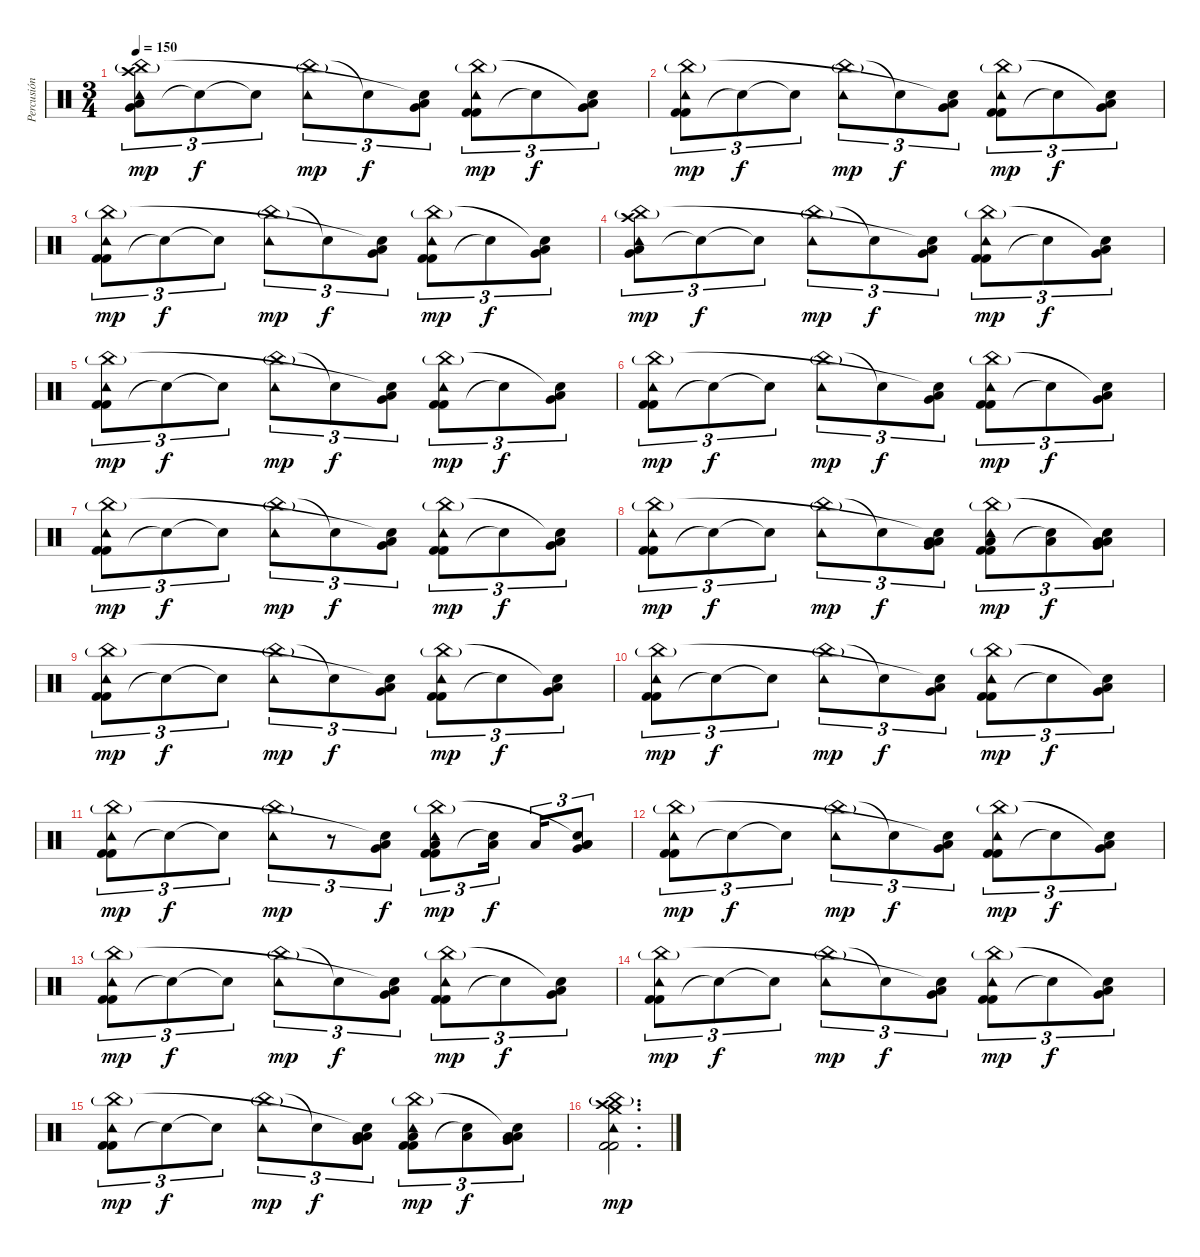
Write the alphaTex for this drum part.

\track ("Percusión" "Percusión") {instrument percussion}
\staff {score}
\articulation defaults
\ts (3 4)
\tempo 150
\clef neutral
\ks c
("Low Floor Tom (hit)" "Very Low Tom (hit)" "China (hit)"{g} "Crash high (hit)" "Tambourine (hit)").8{tu (3 2) dy mp} "Snare (hit)"{t}.8{tu (3 2) dy f} "Snare (hit)"{t}.8{tu (3 2)} ("China (hit)"{g} "Tambourine (hit)").8{tu (3 2) dy mp} "Snare (hit)"{t}.8{tu (3 2) dy f} ("Low Floor Tom (hit)" "Very Low Tom (hit)" "Snare (hit)"{t}).8{tu (3 2)} ("Kick (hit) 2" "Kick (hit) 2" "China (hit)"{g} "Tambourine (hit)").8{tu (3 2) dy mp} "Snare (hit)"{t}.8{tu (3 2) dy f} ("Low Floor Tom (hit)" "Very Low Tom (hit)" "Snare (hit)"{t}).8{tu (3 2)} |
("Kick (hit) 2" "Kick (hit) 2" "China (hit)"{g} "Tambourine (hit)").8{tu (3 2) dy mp} "Snare (hit)"{t}.8{tu (3 2) dy f} "Snare (hit)"{t}.8{tu (3 2)} ("China (hit)"{g} "Tambourine (hit)").8{tu (3 2) dy mp} "Snare (hit)"{t}.8{tu (3 2) dy f} ("Low Floor Tom (hit)" "Very Low Tom (hit)" "Snare (hit)"{t}).8{tu (3 2)} ("Kick (hit) 2" "Kick (hit) 2" "China (hit)"{g} "Tambourine (hit)").8{tu (3 2) dy mp} "Snare (hit)"{t}.8{tu (3 2) dy f} ("Low Floor Tom (hit)" "Very Low Tom (hit)" "Snare (hit)"{t}).8{tu (3 2)} |
("Kick (hit) 2" "Kick (hit) 2" "China (hit)"{g} "Tambourine (hit)").8{tu (3 2) dy mp} "Snare (hit)"{t}.8{tu (3 2) dy f} "Snare (hit)"{t}.8{tu (3 2)} ("China (hit)"{g} "Tambourine (hit)").8{tu (3 2) dy mp} "Snare (hit)"{t}.8{tu (3 2) dy f} ("Low Floor Tom (hit)" "Very Low Tom (hit)" "Snare (hit)"{t}).8{tu (3 2)} ("Kick (hit) 2" "Kick (hit) 2" "China (hit)"{g} "Tambourine (hit)").8{tu (3 2) dy mp} "Snare (hit)"{t}.8{tu (3 2) dy f} ("Low Floor Tom (hit)" "Very Low Tom (hit)" "Snare (hit)"{t}).8{tu (3 2)} |
("Low Floor Tom (hit)" "Very Low Tom (hit)" "China (hit)"{g} "Crash high (hit)" "Tambourine (hit)").8{tu (3 2) dy mp} "Snare (hit)"{t}.8{tu (3 2) dy f} "Snare (hit)"{t}.8{tu (3 2)} ("China (hit)"{g} "Tambourine (hit)").8{tu (3 2) dy mp} "Snare (hit)"{t}.8{tu (3 2) dy f} ("Low Floor Tom (hit)" "Very Low Tom (hit)" "Snare (hit)"{t}).8{tu (3 2)} ("Kick (hit) 2" "Kick (hit) 2" "China (hit)"{g} "Tambourine (hit)").8{tu (3 2) dy mp} "Snare (hit)"{t}.8{tu (3 2) dy f} ("Low Floor Tom (hit)" "Very Low Tom (hit)" "Snare (hit)"{t}).8{tu (3 2)} |
("Kick (hit) 2" "Kick (hit) 2" "China (hit)"{g} "Tambourine (hit)").8{tu (3 2) dy mp} "Snare (hit)"{t}.8{tu (3 2) dy f} "Snare (hit)"{t}.8{tu (3 2)} ("China (hit)"{g} "Tambourine (hit)").8{tu (3 2) dy mp} "Snare (hit)"{t}.8{tu (3 2) dy f} ("Low Floor Tom (hit)" "Very Low Tom (hit)" "Snare (hit)"{t}).8{tu (3 2)} ("Kick (hit) 2" "Kick (hit) 2" "China (hit)"{g} "Tambourine (hit)").8{tu (3 2) dy mp} "Snare (hit)"{t}.8{tu (3 2) dy f} ("Low Floor Tom (hit)" "Very Low Tom (hit)" "Snare (hit)"{t}).8{tu (3 2)} |
("Kick (hit) 2" "Kick (hit) 2" "China (hit)"{g} "Tambourine (hit)").8{tu (3 2) dy mp} "Snare (hit)"{t}.8{tu (3 2) dy f} "Snare (hit)"{t}.8{tu (3 2)} ("China (hit)"{g} "Tambourine (hit)").8{tu (3 2) dy mp} "Snare (hit)"{t}.8{tu (3 2) dy f} ("Low Floor Tom (hit)" "Very Low Tom (hit)" "Snare (hit)"{t}).8{tu (3 2)} ("Kick (hit) 2" "Kick (hit) 2" "China (hit)"{g} "Tambourine (hit)").8{tu (3 2) dy mp} "Snare (hit)"{t}.8{tu (3 2) dy f} ("Low Floor Tom (hit)" "Very Low Tom (hit)" "Snare (hit)"{t}).8{tu (3 2)} |
("Kick (hit) 2" "Kick (hit) 2" "China (hit)"{g} "Tambourine (hit)").8{tu (3 2) dy mp} "Snare (hit)"{t}.8{tu (3 2) dy f} "Snare (hit)"{t}.8{tu (3 2)} ("China (hit)"{g} "Tambourine (hit)").8{tu (3 2) dy mp} "Snare (hit)"{t}.8{tu (3 2) dy f} ("Low Floor Tom (hit)" "Very Low Tom (hit)" "Snare (hit)"{t}).8{tu (3 2)} ("Kick (hit) 2" "Kick (hit) 2" "China (hit)"{g} "Tambourine (hit)").8{tu (3 2) dy mp} "Snare (hit)"{t}.8{tu (3 2) dy f} ("Low Floor Tom (hit)" "Very Low Tom (hit)" "Snare (hit)"{t}).8{tu (3 2)} |
("Kick (hit) 2" "Kick (hit) 2" "China (hit)"{g} "Tambourine (hit)").8{tu (3 2) dy mp} "Snare (hit)"{t}.8{tu (3 2) dy f} "Snare (hit)"{t}.8{tu (3 2)} ("China (hit)"{g} "Tambourine (hit)").8{tu (3 2) dy mp} "Snare (hit)"{t}.8{tu (3 2) dy f} ("Low Floor Tom (hit)" "Very Low Tom (hit)" "Snare (hit)"{t} "Low Tom (hit)").8{tu (3 2)} ("Kick (hit) 2" "Kick (hit) 2" "China (hit)"{g} "Low Tom (hit)" "Tambourine (hit)").8{tu (3 2) dy mp} ("Snare (hit)"{t} "Low Tom (hit)").8{tu (3 2) dy f} ("Low Floor Tom (hit)" "Very Low Tom (hit)" "Snare (hit)"{t} "Low Tom (hit)").8{tu (3 2)} |
("Kick (hit) 2" "Kick (hit) 2" "China (hit)"{g} "Tambourine (hit)").8{tu (3 2) dy mp} "Snare (hit)"{t}.8{tu (3 2) dy f} "Snare (hit)"{t}.8{tu (3 2)} ("China (hit)"{g} "Tambourine (hit)").8{tu (3 2) dy mp} "Snare (hit)"{t}.8{tu (3 2) dy f} ("Low Floor Tom (hit)" "Very Low Tom (hit)" "Snare (hit)"{t}).8{tu (3 2)} ("Kick (hit) 2" "Kick (hit) 2" "China (hit)"{g} "Tambourine (hit)").8{tu (3 2) dy mp} "Snare (hit)"{t}.8{tu (3 2) dy f} ("Low Floor Tom (hit)" "Very Low Tom (hit)" "Snare (hit)"{t}).8{tu (3 2)} |
("Kick (hit) 2" "Kick (hit) 2" "China (hit)"{g} "Tambourine (hit)").8{tu (3 2) dy mp} "Snare (hit)"{t}.8{tu (3 2) dy f} "Snare (hit)"{t}.8{tu (3 2)} ("China (hit)"{g} "Tambourine (hit)").8{tu (3 2) dy mp} "Snare (hit)"{t}.8{tu (3 2) dy f} ("Low Floor Tom (hit)" "Very Low Tom (hit)" "Snare (hit)"{t}).8{tu (3 2)} ("Kick (hit) 2" "Kick (hit) 2" "China (hit)"{g} "Tambourine (hit)").8{tu (3 2) dy mp} "Snare (hit)"{t}.8{tu (3 2) dy f} ("Low Floor Tom (hit)" "Very Low Tom (hit)" "Snare (hit)"{t}).8{tu (3 2)} |
("Kick (hit) 2" "Kick (hit) 2" "China (hit)"{g} "Tambourine (hit)").8{tu (3 2) dy mp} "Snare (hit)"{t}.8{tu (3 2) dy f} "Snare (hit)"{t}.8{tu (3 2)} ("China (hit)"{g} "Tambourine (hit)").8{tu (3 2) dy mp} r.8{tu (3 2)} ("Low Floor Tom (hit)" "Very Low Tom (hit)" "Snare (hit)"{t}).8{tu (3 2) dy f} ("Kick (hit) 2" "Kick (hit) 2" "China (hit)"{g} "Low Tom (hit)" "Tambourine (hit)").8{tu (3 2) dy mp} ("Snare (hit)"{t} "Low Tom (hit)").16{tu (3 2) dy f beam splitsecondary} "Low Tom (hit)".16{tu (3 2)} ("Low Floor Tom (hit)" "Very Low Tom (hit)" "Snare (hit)"{t} "Low Tom (hit)").8{tu (3 2)} |
("Kick (hit) 2" "Kick (hit) 2" "China (hit)"{g} "Tambourine (hit)").8{tu (3 2) dy mp} "Snare (hit)"{t}.8{tu (3 2) dy f} "Snare (hit)"{t}.8{tu (3 2)} ("China (hit)"{g} "Tambourine (hit)").8{tu (3 2) dy mp} "Snare (hit)"{t}.8{tu (3 2) dy f} ("Low Floor Tom (hit)" "Very Low Tom (hit)" "Snare (hit)"{t}).8{tu (3 2)} ("Kick (hit) 2" "Kick (hit) 2" "China (hit)"{g} "Tambourine (hit)").8{tu (3 2) dy mp} "Snare (hit)"{t}.8{tu (3 2) dy f} ("Low Floor Tom (hit)" "Very Low Tom (hit)" "Snare (hit)"{t}).8{tu (3 2)} |
("Kick (hit) 2" "Kick (hit) 2" "China (hit)"{g} "Tambourine (hit)").8{tu (3 2) dy mp} "Snare (hit)"{t}.8{tu (3 2) dy f} "Snare (hit)"{t}.8{tu (3 2)} ("China (hit)"{g} "Tambourine (hit)").8{tu (3 2) dy mp} "Snare (hit)"{t}.8{tu (3 2) dy f} ("Low Floor Tom (hit)" "Very Low Tom (hit)" "Snare (hit)"{t}).8{tu (3 2)} ("Kick (hit) 2" "Kick (hit) 2" "China (hit)"{g} "Tambourine (hit)").8{tu (3 2) dy mp} "Snare (hit)"{t}.8{tu (3 2) dy f} ("Low Floor Tom (hit)" "Very Low Tom (hit)" "Snare (hit)"{t}).8{tu (3 2)} |
("Kick (hit) 2" "Kick (hit) 2" "China (hit)"{g} "Tambourine (hit)").8{tu (3 2) dy mp} "Snare (hit)"{t}.8{tu (3 2) dy f} "Snare (hit)"{t}.8{tu (3 2)} ("China (hit)"{g} "Tambourine (hit)").8{tu (3 2) dy mp} "Snare (hit)"{t}.8{tu (3 2) dy f} ("Low Floor Tom (hit)" "Very Low Tom (hit)" "Snare (hit)"{t}).8{tu (3 2)} ("Kick (hit) 2" "Kick (hit) 2" "China (hit)"{g} "Tambourine (hit)").8{tu (3 2) dy mp} "Snare (hit)"{t}.8{tu (3 2) dy f} ("Low Floor Tom (hit)" "Very Low Tom (hit)" "Snare (hit)"{t}).8{tu (3 2)} |
("Kick (hit) 2" "Kick (hit) 2" "China (hit)"{g} "Tambourine (hit)").8{tu (3 2) dy mp} "Snare (hit)"{t}.8{tu (3 2) dy f} "Snare (hit)"{t}.8{tu (3 2)} ("China (hit)"{g} "Tambourine (hit)").8{tu (3 2) dy mp} "Snare (hit)"{t}.8{tu (3 2) dy f} ("Low Floor Tom (hit)" "Very Low Tom (hit)" "Snare (hit)"{t} "Low Tom (hit)").8{tu (3 2)} ("Kick (hit) 2" "Kick (hit) 2" "China (hit)"{g} "Low Tom (hit)" "Tambourine (hit)").8{tu (3 2) dy mp} ("Snare (hit)"{t} "Low Tom (hit)").8{tu (3 2) dy f} ("Low Floor Tom (hit)" "Very Low Tom (hit)" "Snare (hit)"{t} "Low Tom (hit)").8{tu (3 2)} |
("Kick (hit) 2" "Kick (hit) 2" "China (hit)"{g} "Crash medium (hit)" "Tambourine (hit)" "Crash high (hit)").2{d dy mp}
